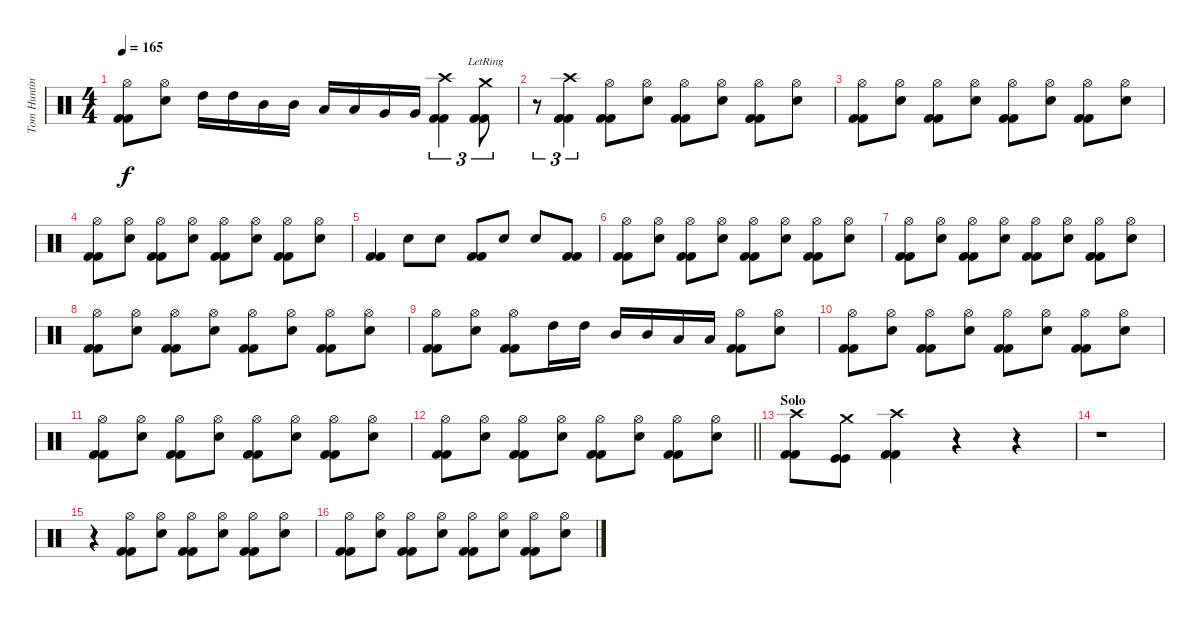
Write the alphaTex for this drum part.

\track ("Tom Hunting" "Tom Huntin") {instrument percussion}
\staff {score}
\articulation defaults
\ts (4 4)
\tempo 165
\clef neutral
\ks c
("Kick (hit) 2" "Kick (hit) 2" "Hi-Hat (open)").8{dy f} ("Electric Snare (hit)" "Hi-Hat (open)").8 "High Tom (hit)".16 "High Tom (hit)".16 "Mid Tom (hit)".16 "Mid Tom (hit)".16 "Low Tom (hit)".16 "Low Tom (hit)".16 "Very Low Tom (hit)".16 "Very Low Tom (hit)".16 ("Kick (hit) 2" "Kick (hit) 2" "Crash high (hit)").4{tu (3 2)} ("Kick (hit) 2" "Kick (hit) 2" "Crash medium (hit)"{lr}).8{tu (3 2)} |
r.8{tu (3 2)} ("Kick (hit) 2" "Kick (hit) 2" "Crash high (hit)").4{tu (3 2)} ("Kick (hit) 2" "Kick (hit) 2" "Hi-Hat (open)").8 ("Electric Snare (hit)" "Hi-Hat (open)").8 ("Kick (hit) 2" "Kick (hit) 2" "Hi-Hat (open)").8 ("Electric Snare (hit)" "Hi-Hat (open)").8 ("Kick (hit) 2" "Kick (hit) 2" "Hi-Hat (open)").8 ("Electric Snare (hit)" "Hi-Hat (open)").8 |
("Kick (hit) 2" "Kick (hit) 2" "Hi-Hat (open)").8 ("Electric Snare (hit)" "Hi-Hat (open)").8 ("Kick (hit) 2" "Kick (hit) 2" "Hi-Hat (open)").8 ("Electric Snare (hit)" "Hi-Hat (open)").8 ("Kick (hit) 2" "Kick (hit) 2" "Hi-Hat (open)").8 ("Electric Snare (hit)" "Hi-Hat (open)").8 ("Kick (hit) 2" "Kick (hit) 2" "Hi-Hat (open)").8 ("Electric Snare (hit)" "Hi-Hat (open)").8 |
("Kick (hit) 2" "Kick (hit) 2" "Hi-Hat (open)").8 ("Electric Snare (hit)" "Hi-Hat (open)").8 ("Kick (hit) 2" "Kick (hit) 2" "Hi-Hat (open)").8 ("Electric Snare (hit)" "Hi-Hat (open)").8 ("Kick (hit) 2" "Kick (hit) 2" "Hi-Hat (open)").8 ("Electric Snare (hit)" "Hi-Hat (open)").8 ("Kick (hit) 2" "Kick (hit) 2" "Hi-Hat (open)").8 ("Electric Snare (hit)" "Hi-Hat (open)").8 |
("Kick (hit) 2" "Kick (hit) 2").4 "Electric Snare (hit)".8 "Electric Snare (hit)".8 ("Kick (hit) 2" "Kick (hit) 2").8 "Electric Snare (hit)".8 "Electric Snare (hit)".8 ("Kick (hit) 2" "Kick (hit) 2").8 |
("Kick (hit) 2" "Kick (hit) 2" "Hi-Hat (open)").8 ("Electric Snare (hit)" "Hi-Hat (open)").8 ("Kick (hit) 2" "Kick (hit) 2" "Hi-Hat (open)").8 ("Electric Snare (hit)" "Hi-Hat (open)").8 ("Kick (hit) 2" "Kick (hit) 2" "Hi-Hat (open)").8 ("Electric Snare (hit)" "Hi-Hat (open)").8 ("Kick (hit) 2" "Kick (hit) 2" "Hi-Hat (open)").8 ("Electric Snare (hit)" "Hi-Hat (open)").8 |
("Kick (hit) 2" "Kick (hit) 2" "Hi-Hat (open)").8 ("Electric Snare (hit)" "Hi-Hat (open)").8 ("Kick (hit) 2" "Kick (hit) 2" "Hi-Hat (open)").8 ("Electric Snare (hit)" "Hi-Hat (open)").8 ("Kick (hit) 2" "Kick (hit) 2" "Hi-Hat (open)").8 ("Electric Snare (hit)" "Hi-Hat (open)").8 ("Kick (hit) 2" "Kick (hit) 2" "Hi-Hat (open)").8 ("Electric Snare (hit)" "Hi-Hat (open)").8 |
("Kick (hit) 2" "Kick (hit) 2" "Hi-Hat (open)").8 ("Electric Snare (hit)" "Hi-Hat (open)").8 ("Kick (hit) 2" "Kick (hit) 2" "Hi-Hat (open)").8 ("Electric Snare (hit)" "Hi-Hat (open)").8 ("Kick (hit) 2" "Kick (hit) 2" "Hi-Hat (open)").8 ("Electric Snare (hit)" "Hi-Hat (open)").8 ("Kick (hit) 2" "Kick (hit) 2" "Hi-Hat (open)").8 ("Electric Snare (hit)" "Hi-Hat (open)").8 |
("Kick (hit) 2" "Kick (hit) 2" "Hi-Hat (open)").8 ("Electric Snare (hit)" "Hi-Hat (open)").8 ("Kick (hit) 2" "Kick (hit) 2" "Hi-Hat (open)").8 "High Tom (hit)".16 "High Tom (hit)".16 "Mid Tom (hit)".16 "Mid Tom (hit)".16 "Low Tom (hit)".16 "Low Tom (hit)".16 ("Kick (hit) 2" "Kick (hit) 2" "Hi-Hat (open)").8 ("Electric Snare (hit)" "Hi-Hat (open)").8 |
("Kick (hit) 2" "Kick (hit) 2" "Hi-Hat (open)").8 ("Electric Snare (hit)" "Hi-Hat (open)").8 ("Kick (hit) 2" "Kick (hit) 2" "Hi-Hat (open)").8 ("Electric Snare (hit)" "Hi-Hat (open)").8 ("Kick (hit) 2" "Kick (hit) 2" "Hi-Hat (open)").8 ("Electric Snare (hit)" "Hi-Hat (open)").8 ("Kick (hit) 2" "Kick (hit) 2" "Hi-Hat (open)").8 ("Electric Snare (hit)" "Hi-Hat (open)").8 |
("Kick (hit) 2" "Kick (hit) 2" "Hi-Hat (open)").8 ("Electric Snare (hit)" "Hi-Hat (open)").8 ("Kick (hit) 2" "Kick (hit) 2" "Hi-Hat (open)").8 ("Electric Snare (hit)" "Hi-Hat (open)").8 ("Kick (hit) 2" "Kick (hit) 2" "Hi-Hat (open)").8 ("Electric Snare (hit)" "Hi-Hat (open)").8 ("Kick (hit) 2" "Kick (hit) 2" "Hi-Hat (open)").8 ("Electric Snare (hit)" "Hi-Hat (open)").8 |
\barLineRight lightlight
("Kick (hit) 2" "Kick (hit) 2" "Hi-Hat (open)").8 ("Electric Snare (hit)" "Hi-Hat (open)").8 ("Kick (hit) 2" "Kick (hit) 2" "Hi-Hat (open)").8 ("Electric Snare (hit)" "Hi-Hat (open)").8 ("Kick (hit) 2" "Kick (hit) 2" "Hi-Hat (open)").8 ("Electric Snare (hit)" "Hi-Hat (open)").8 ("Kick (hit) 2" "Kick (hit) 2" "Hi-Hat (open)").8 ("Electric Snare (hit)" "Hi-Hat (open)").8 |
\section ("" "Solo")
("Kick (hit) 2" "Kick (hit) 2" "Crash high (hit)").8 ("Kick (hit)" "Kick (hit)" "Crash medium (hit)").8 ("Kick (hit) 2" "Kick (hit) 2" "Crash high (hit)").4 r.4 r.4 |
r.1 |
r.4 ("Kick (hit) 2" "Kick (hit) 2" "Hi-Hat (open)").8 ("Electric Snare (hit)" "Hi-Hat (open)").8 ("Kick (hit) 2" "Kick (hit) 2" "Hi-Hat (open)").8 ("Electric Snare (hit)" "Hi-Hat (open)").8 ("Kick (hit) 2" "Kick (hit) 2" "Hi-Hat (open)").8 ("Electric Snare (hit)" "Hi-Hat (open)").8 |
("Kick (hit) 2" "Kick (hit) 2" "Hi-Hat (open)").8 ("Electric Snare (hit)" "Hi-Hat (open)").8 ("Kick (hit) 2" "Kick (hit) 2" "Hi-Hat (open)").8 ("Electric Snare (hit)" "Hi-Hat (open)").8 ("Kick (hit) 2" "Kick (hit) 2" "Hi-Hat (open)").8 ("Electric Snare (hit)" "Hi-Hat (open)").8 ("Kick (hit) 2" "Kick (hit) 2" "Hi-Hat (open)").8 ("Electric Snare (hit)" "Hi-Hat (open)").8
